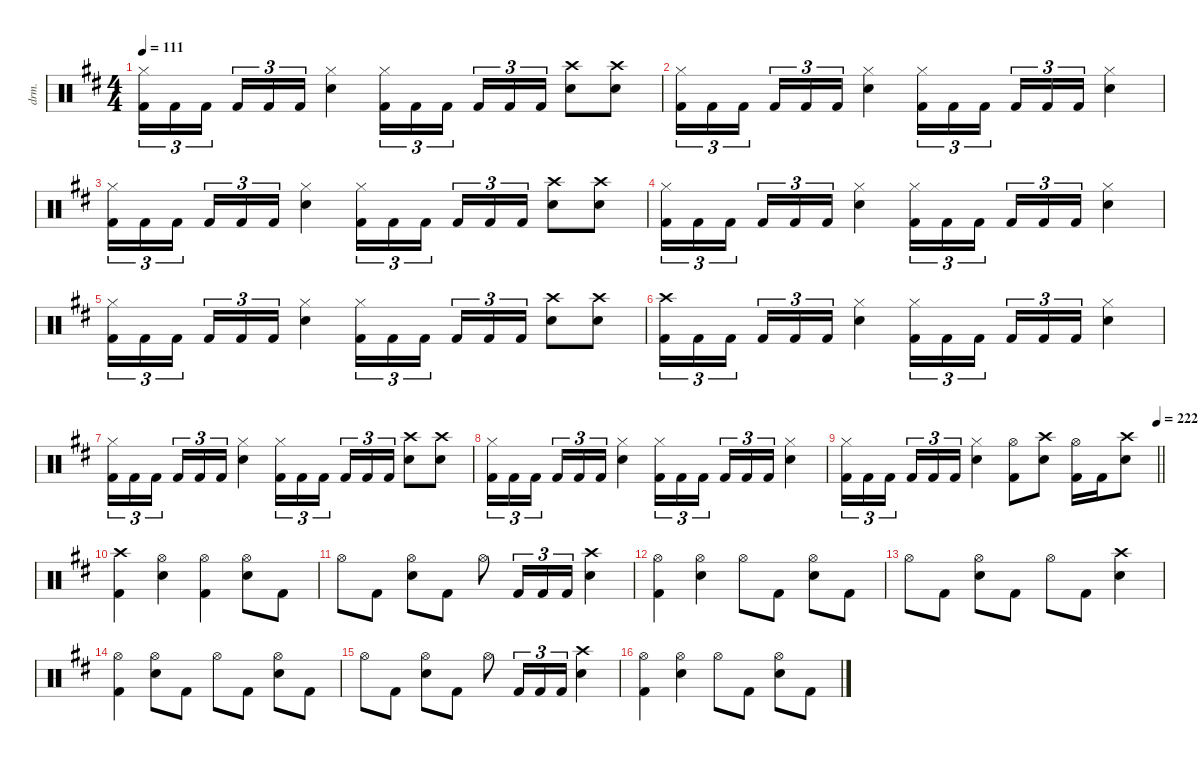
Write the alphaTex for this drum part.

\defaultSystemsLayout 4
\hideDynamics
\bracketExtendMode nobrackets
\otherSystemsTrackNameOrientation horizontal
\track ("Lars Ulrich" "drm.") {defaultSystemsLayout 4 instrument percussion}
\staff {score}
\articulation defaults
\ts (4 4)
\tempo 111
\clef neutral
\ks bminor
("Hi-Hat (closed)"{acc forcenatural} "Kick (hit) 2"{acc forcenatural}).16{tu (3 2) dy f beam Down} "Kick (hit) 2"{acc forcenatural}.16{tu (3 2) beam Down} "Kick (hit) 2"{acc forcenatural}.16{tu (3 2) beam Down} "Kick (hit) 2"{acc forcenatural}.16{tu (3 2) beam Up} "Kick (hit) 2"{acc forcenatural}.16{tu (3 2) beam Up} "Kick (hit) 2"{acc forcenatural}.16{tu (3 2) beam Up} ("Hi-Hat (closed)"{acc forcenatural} "Snare (hit) 2"{acc forcenatural}).4{beam Down} ("Hi-Hat (closed)"{acc forcenatural} "Kick (hit) 2"{acc forcenatural}).16{tu (3 2) beam Down} "Kick (hit) 2"{acc forcenatural}.16{tu (3 2) beam Down} "Kick (hit) 2"{acc forcenatural}.16{tu (3 2) beam Down} "Kick (hit) 2"{acc forcenatural}.16{tu (3 2) beam Up} "Kick (hit) 2"{acc forcenatural}.16{tu (3 2) beam Up} "Kick (hit) 2"{acc forcenatural}.16{tu (3 2) beam Up} ("Crash high (hit)"{acc forcenatural} "Snare (hit) 2"{acc forcenatural}).8{beam Down} ("Crash high (hit)"{acc forcenatural} "Snare (hit) 2"{acc forcenatural}).8{beam Down} |
("Hi-Hat (closed)"{acc forcenatural} "Kick (hit) 2"{acc forcenatural}).16{tu (3 2) beam Down} "Kick (hit) 2"{acc forcenatural}.16{tu (3 2) beam Down} "Kick (hit) 2"{acc forcenatural}.16{tu (3 2) beam Down} "Kick (hit) 2"{acc forcenatural}.16{tu (3 2) beam Up} "Kick (hit) 2"{acc forcenatural}.16{tu (3 2) beam Up} "Kick (hit) 2"{acc forcenatural}.16{tu (3 2) beam Up} ("Hi-Hat (closed)"{acc forcenatural} "Snare (hit) 2"{acc forcenatural}).4{beam Down} ("Hi-Hat (closed)"{acc forcenatural} "Kick (hit) 2"{acc forcenatural}).16{tu (3 2) beam Down} "Kick (hit) 2"{acc forcenatural}.16{tu (3 2) beam Down} "Kick (hit) 2"{acc forcenatural}.16{tu (3 2) beam Down} "Kick (hit) 2"{acc forcenatural}.16{tu (3 2) beam Up} "Kick (hit) 2"{acc forcenatural}.16{tu (3 2) beam Up} "Kick (hit) 2"{acc forcenatural}.16{tu (3 2) beam Up} ("Hi-Hat (closed)"{acc forcenatural} "Snare (hit) 2"{acc forcenatural}).4{beam Down} |
("Hi-Hat (closed)"{acc forcenatural} "Kick (hit) 2"{acc forcenatural}).16{tu (3 2) beam Down} "Kick (hit) 2"{acc forcenatural}.16{tu (3 2) beam Down} "Kick (hit) 2"{acc forcenatural}.16{tu (3 2) beam Down} "Kick (hit) 2"{acc forcenatural}.16{tu (3 2) beam Up} "Kick (hit) 2"{acc forcenatural}.16{tu (3 2) beam Up} "Kick (hit) 2"{acc forcenatural}.16{tu (3 2) beam Up} ("Hi-Hat (closed)"{acc forcenatural} "Snare (hit) 2"{acc forcenatural}).4{beam Down} ("Hi-Hat (closed)"{acc forcenatural} "Kick (hit) 2"{acc forcenatural}).16{tu (3 2) beam Down} "Kick (hit) 2"{acc forcenatural}.16{tu (3 2) beam Down} "Kick (hit) 2"{acc forcenatural}.16{tu (3 2) beam Down} "Kick (hit) 2"{acc forcenatural}.16{tu (3 2) beam Up} "Kick (hit) 2"{acc forcenatural}.16{tu (3 2) beam Up} "Kick (hit) 2"{acc forcenatural}.16{tu (3 2) beam Up} ("Crash high (hit)"{acc forcenatural} "Snare (hit) 2"{acc forcenatural}).8{beam Down} ("Crash high (hit)"{acc forcenatural} "Snare (hit) 2"{acc forcenatural}).8{beam Down} |
("Hi-Hat (closed)"{acc forcenatural} "Kick (hit) 2"{acc forcenatural}).16{tu (3 2) beam Down} "Kick (hit) 2"{acc forcenatural}.16{tu (3 2) beam Down} "Kick (hit) 2"{acc forcenatural}.16{tu (3 2) beam Down} "Kick (hit) 2"{acc forcenatural}.16{tu (3 2) beam Up} "Kick (hit) 2"{acc forcenatural}.16{tu (3 2) beam Up} "Kick (hit) 2"{acc forcenatural}.16{tu (3 2) beam Up} ("Hi-Hat (closed)"{acc forcenatural} "Snare (hit) 2"{acc forcenatural}).4{beam Down} ("Hi-Hat (closed)"{acc forcenatural} "Kick (hit) 2"{acc forcenatural}).16{tu (3 2) beam Down} "Kick (hit) 2"{acc forcenatural}.16{tu (3 2) beam Down} "Kick (hit) 2"{acc forcenatural}.16{tu (3 2) beam Down} "Kick (hit) 2"{acc forcenatural}.16{tu (3 2) beam Up} "Kick (hit) 2"{acc forcenatural}.16{tu (3 2) beam Up} "Kick (hit) 2"{acc forcenatural}.16{tu (3 2) beam Up} ("Hi-Hat (closed)"{acc forcenatural} "Snare (hit) 2"{acc forcenatural}).4{beam Down} |
("Hi-Hat (closed)"{acc forcenatural} "Kick (hit) 2"{acc forcenatural}).16{tu (3 2) beam Down} "Kick (hit) 2"{acc forcenatural}.16{tu (3 2) beam Down} "Kick (hit) 2"{acc forcenatural}.16{tu (3 2) beam Down} "Kick (hit) 2"{acc forcenatural}.16{tu (3 2) beam Up} "Kick (hit) 2"{acc forcenatural}.16{tu (3 2) beam Up} "Kick (hit) 2"{acc forcenatural}.16{tu (3 2) beam Up} ("Hi-Hat (closed)"{acc forcenatural} "Snare (hit) 2"{acc forcenatural}).4{beam Down} ("Hi-Hat (closed)"{acc forcenatural} "Kick (hit) 2"{acc forcenatural}).16{tu (3 2) beam Down} "Kick (hit) 2"{acc forcenatural}.16{tu (3 2) beam Down} "Kick (hit) 2"{acc forcenatural}.16{tu (3 2) beam Down} "Kick (hit) 2"{acc forcenatural}.16{tu (3 2) beam Up} "Kick (hit) 2"{acc forcenatural}.16{tu (3 2) beam Up} "Kick (hit) 2"{acc forcenatural}.16{tu (3 2) beam Up} ("Crash high (hit)"{acc forcenatural} "Snare (hit) 2"{acc forcenatural}).8{beam Down} ("Crash high (hit)"{acc forcenatural} "Snare (hit) 2"{acc forcenatural}).8{beam Down} |
("Crash high (hit)"{acc forcenatural} "Kick (hit) 2"{acc forcenatural}).16{tu (3 2) beam Down} "Kick (hit) 2"{acc forcenatural}.16{tu (3 2) beam Down} "Kick (hit) 2"{acc forcenatural}.16{tu (3 2) beam Down} "Kick (hit) 2"{acc forcenatural}.16{tu (3 2) beam Up} "Kick (hit) 2"{acc forcenatural}.16{tu (3 2) beam Up} "Kick (hit) 2"{acc forcenatural}.16{tu (3 2) beam Up} ("Hi-Hat (closed)"{acc forcenatural} "Snare (hit) 2"{acc forcenatural}).4{beam Down} ("Hi-Hat (closed)"{acc forcenatural} "Kick (hit) 2"{acc forcenatural}).16{tu (3 2) beam Down} "Kick (hit) 2"{acc forcenatural}.16{tu (3 2) beam Down} "Kick (hit) 2"{acc forcenatural}.16{tu (3 2) beam Down} "Kick (hit) 2"{acc forcenatural}.16{tu (3 2) beam Up} "Kick (hit) 2"{acc forcenatural}.16{tu (3 2) beam Up} "Kick (hit) 2"{acc forcenatural}.16{tu (3 2) beam Up} ("Hi-Hat (closed)"{acc forcenatural} "Snare (hit) 2"{acc forcenatural}).4{beam Down} |
("Hi-Hat (closed)"{acc forcenatural} "Kick (hit) 2"{acc forcenatural}).16{tu (3 2) beam Down} "Kick (hit) 2"{acc forcenatural}.16{tu (3 2) beam Down} "Kick (hit) 2"{acc forcenatural}.16{tu (3 2) beam Down} "Kick (hit) 2"{acc forcenatural}.16{tu (3 2) beam Up} "Kick (hit) 2"{acc forcenatural}.16{tu (3 2) beam Up} "Kick (hit) 2"{acc forcenatural}.16{tu (3 2) beam Up} ("Hi-Hat (closed)"{acc forcenatural} "Snare (hit) 2"{acc forcenatural}).4{beam Down} ("Hi-Hat (closed)"{acc forcenatural} "Kick (hit) 2"{acc forcenatural}).16{tu (3 2) beam Down} "Kick (hit) 2"{acc forcenatural}.16{tu (3 2) beam Down} "Kick (hit) 2"{acc forcenatural}.16{tu (3 2) beam Down} "Kick (hit) 2"{acc forcenatural}.16{tu (3 2) beam Up} "Kick (hit) 2"{acc forcenatural}.16{tu (3 2) beam Up} "Kick (hit) 2"{acc forcenatural}.16{tu (3 2) beam Up} ("Crash high (hit)"{acc forcenatural} "Snare (hit) 2"{acc forcenatural}).8{beam Down} ("Crash high (hit)"{acc forcenatural} "Snare (hit) 2"{acc forcenatural}).8{beam Down} |
("Hi-Hat (closed)"{acc forcenatural} "Kick (hit) 2"{acc forcenatural}).16{tu (3 2) beam Down} "Kick (hit) 2"{acc forcenatural}.16{tu (3 2) beam Down} "Kick (hit) 2"{acc forcenatural}.16{tu (3 2) beam Down} "Kick (hit) 2"{acc forcenatural}.16{tu (3 2) beam Up} "Kick (hit) 2"{acc forcenatural}.16{tu (3 2) beam Up} "Kick (hit) 2"{acc forcenatural}.16{tu (3 2) beam Up} ("Hi-Hat (closed)"{acc forcenatural} "Snare (hit) 2"{acc forcenatural}).4{beam Down} ("Hi-Hat (closed)"{acc forcenatural} "Kick (hit) 2"{acc forcenatural}).16{tu (3 2) beam Down} "Kick (hit) 2"{acc forcenatural}.16{tu (3 2) beam Down} "Kick (hit) 2"{acc forcenatural}.16{tu (3 2) beam Down} "Kick (hit) 2"{acc forcenatural}.16{tu (3 2) beam Up} "Kick (hit) 2"{acc forcenatural}.16{tu (3 2) beam Up} "Kick (hit) 2"{acc forcenatural}.16{tu (3 2) beam Up} ("Hi-Hat (closed)"{acc forcenatural} "Snare (hit) 2"{acc forcenatural}).4{beam Down} |
\tempo (222 1)
\barLineRight lightlight
("Hi-Hat (closed)"{acc forcenatural} "Kick (hit) 2"{acc forcenatural}).16{tu (3 2) beam Down} "Kick (hit) 2"{acc forcenatural}.16{tu (3 2) beam Down} "Kick (hit) 2"{acc forcenatural}.16{tu (3 2) beam Down} "Kick (hit) 2"{acc forcenatural}.16{tu (3 2) beam Up} "Kick (hit) 2"{acc forcenatural}.16{tu (3 2) beam Up} "Kick (hit) 2"{acc forcenatural}.16{tu (3 2) beam Up} ("Hi-Hat (closed)"{acc forcenatural} "Snare (hit) 2"{acc forcenatural}).4{beam Down} ("Hi-Hat (open)"{acc forcenatural} "Kick (hit) 2"{acc forcenatural}).8{beam Down} ("Crash high (hit)"{acc forcenatural} "Snare (hit) 2"{acc forcenatural}).8{beam Down} ("Hi-Hat (open)"{acc forcenatural} "Kick (hit) 2"{acc forcenatural}).16{beam Down} "Kick (hit) 2"{acc forcenatural}.16{beam Down} ("Crash high (hit)"{acc forcenatural} "Snare (hit) 2"{acc forcenatural}).8{beam Down} |
("Crash high (hit)"{acc forcenatural} "Kick (hit) 2"{acc forcenatural}).4{beam Down} ("Hi-Hat (open)"{acc forcenatural} "Snare (hit) 2"{acc forcenatural}).4{beam Down} ("Hi-Hat (open)"{acc forcenatural} "Kick (hit) 2"{acc forcenatural}).4{beam Down} ("Hi-Hat (open)"{acc forcenatural} "Snare (hit) 2"{acc forcenatural}).8{beam Down} "Kick (hit) 2"{acc forcenatural}.8{beam Down} |
"Hi-Hat (open)"{acc forcenatural}.8{beam Down} "Kick (hit) 2"{acc forcenatural}.8{beam Down} ("Hi-Hat (open)"{acc forcenatural} "Snare (hit) 2"{acc forcenatural}).8{beam Down} "Kick (hit) 2"{acc forcenatural}.8{beam Down} "Hi-Hat (open)"{acc forcenatural}.8{beam Down} "Kick (hit) 2"{acc forcenatural}.16{tu (3 2) beam Up} "Kick (hit) 2"{acc forcenatural}.16{tu (3 2) beam Up} "Kick (hit) 2"{acc forcenatural}.16{tu (3 2) beam Up} ("Crash high (hit)"{acc forcenatural} "Snare (hit) 2"{acc forcenatural}).4{beam Down} |
("Hi-Hat (open)"{acc forcenatural} "Kick (hit) 2"{acc forcenatural}).4{beam Down} ("Hi-Hat (open)"{acc forcenatural} "Snare (hit) 2"{acc forcenatural}).4{beam Down} "Hi-Hat (open)"{acc forcenatural}.8{beam Down} "Kick (hit) 2"{acc forcenatural}.8{beam Down} ("Hi-Hat (open)"{acc forcenatural} "Snare (hit) 2"{acc forcenatural}).8{beam Down} "Kick (hit) 2"{acc forcenatural}.8{beam Down} |
"Hi-Hat (open)"{acc forcenatural}.8{beam Down} "Kick (hit) 2"{acc forcenatural}.8{beam Down} ("Hi-Hat (open)"{acc forcenatural} "Snare (hit) 2"{acc forcenatural}).8{beam Down} "Kick (hit) 2"{acc forcenatural}.8{beam Down} "Hi-Hat (open)"{acc forcenatural}.8{beam Down} "Kick (hit) 2"{acc forcenatural}.8{beam Down} ("Crash high (hit)"{acc forcenatural} "Snare (hit) 2"{acc forcenatural}).4{beam Down} |
("Hi-Hat (open)"{acc forcenatural} "Kick (hit) 2"{acc forcenatural}).4{beam Down} ("Hi-Hat (open)"{acc forcenatural} "Snare (hit) 2"{acc forcenatural}).8{beam Down} "Kick (hit) 2"{acc forcenatural}.8{beam Down} "Hi-Hat (open)"{acc forcenatural}.8{beam Down} "Kick (hit) 2"{acc forcenatural}.8{beam Down} ("Hi-Hat (open)"{acc forcenatural} "Snare (hit) 2"{acc forcenatural}).8{beam Down} "Kick (hit) 2"{acc forcenatural}.8{beam Down} |
"Hi-Hat (open)"{acc forcenatural}.8{beam Down} "Kick (hit) 2"{acc forcenatural}.8{beam Down} ("Hi-Hat (open)"{acc forcenatural} "Snare (hit) 2"{acc forcenatural}).8{beam Down} "Kick (hit) 2"{acc forcenatural}.8{beam Down} "Hi-Hat (open)"{acc forcenatural}.8{beam Down} "Kick (hit) 2"{acc forcenatural}.16{tu (3 2) beam Up} "Kick (hit) 2"{acc forcenatural}.16{tu (3 2) beam Up} "Kick (hit) 2"{acc forcenatural}.16{tu (3 2) beam Up} ("Crash high (hit)"{acc forcenatural} "Snare (hit) 2"{acc forcenatural}).4{beam Down} |
("Hi-Hat (open)"{acc forcenatural} "Kick (hit) 2"{acc forcenatural}).4{beam Down} ("Hi-Hat (open)"{acc forcenatural} "Snare (hit) 2"{acc forcenatural}).4{beam Down} "Hi-Hat (open)"{acc forcenatural}.8{beam Down} "Kick (hit) 2"{acc forcenatural}.8{beam Down} ("Hi-Hat (open)"{acc forcenatural} "Snare (hit) 2"{acc forcenatural}).8{beam Down} "Kick (hit) 2"{acc forcenatural}.8{beam Down}
